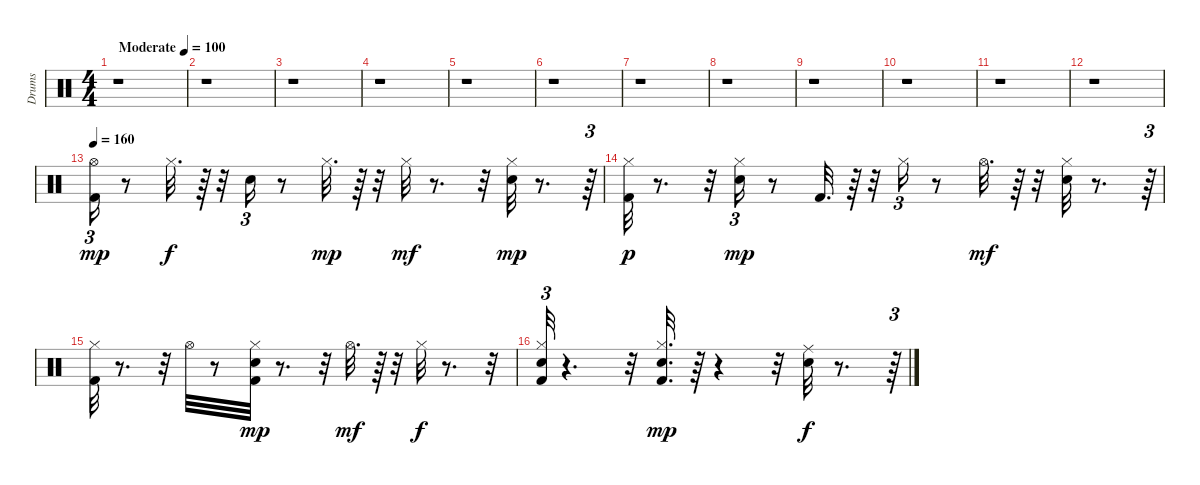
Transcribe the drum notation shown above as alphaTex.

\track ("Drums" "Drums") {instrument percussion}
\staff {score}
\articulation defaults
\ts (4 4)
\tempo (100 "Moderate")
\clef neutral
\ks c
r.1{dy mp} |
r.1 |
r.1 |
r.1 |
r.1 |
r.1 |
r.1 |
r.1 |
r.1 |
r.1 |
r.1 |
r.1 |
\tempo 160
("Kick (hit) 2" "Hi-Hat (open)").16{tu (3 2)} r.8 "Hi-Hat (closed)".32{d dy f} r.64 r.32 "Electric Snare (hit)".16{tu (3 2)} r.8 "Hi-Hat (closed)".32{d dy mp} r.64 r.32 "Hi-Hat (closed)".32{dy mf} r.8{d} r.32 ("Hi-Hat (closed)" "Electric Snare (hit)").32{dy mp} r.8{d} r.64{tu (3 2)} |
("Kick (hit) 2" "Hi-Hat (closed)").32{dy p} r.8{d} r.32 ("Hi-Hat (closed)" "Electric Snare (hit)").16{tu (3 2) dy mp} r.8 "Kick (hit) 2".32{d} r.64 r.32 "Hi-Hat (closed)".16{tu (3 2)} r.8 "Hi-Hat (open)".32{d dy mf} r.64 r.32 ("Hi-Hat (closed)" "Electric Snare (hit)").32 r.8{d} r.64{tu (3 2)} |
("Kick (hit) 2" "Hi-Hat (closed)").32 r.8{d} r.32 "Hi-Hat (open)".32 r.8 ("Kick (hit) 2" "Hi-Hat (closed)" "Electric Snare (hit)").32{dy mp} r.8{d} r.32 "Hi-Hat (open)".32{d dy mf} r.64 r.32 "Hi-Hat (closed)".32{dy f} r.8{d} r.32 |
("Kick (hit) 2" "Hi-Hat (closed)" "Electric Snare (hit)").32{tu (3 2)} r.4{d} r.32 ("Kick (hit) 2" "Hi-Hat (closed)" "Electric Snare (hit)").32{d dy mp} r.64 r.4 r.32 ("Ride (middle)" "Electric Snare (hit)").32{dy f} r.8{d} r.64{tu (3 2)}
